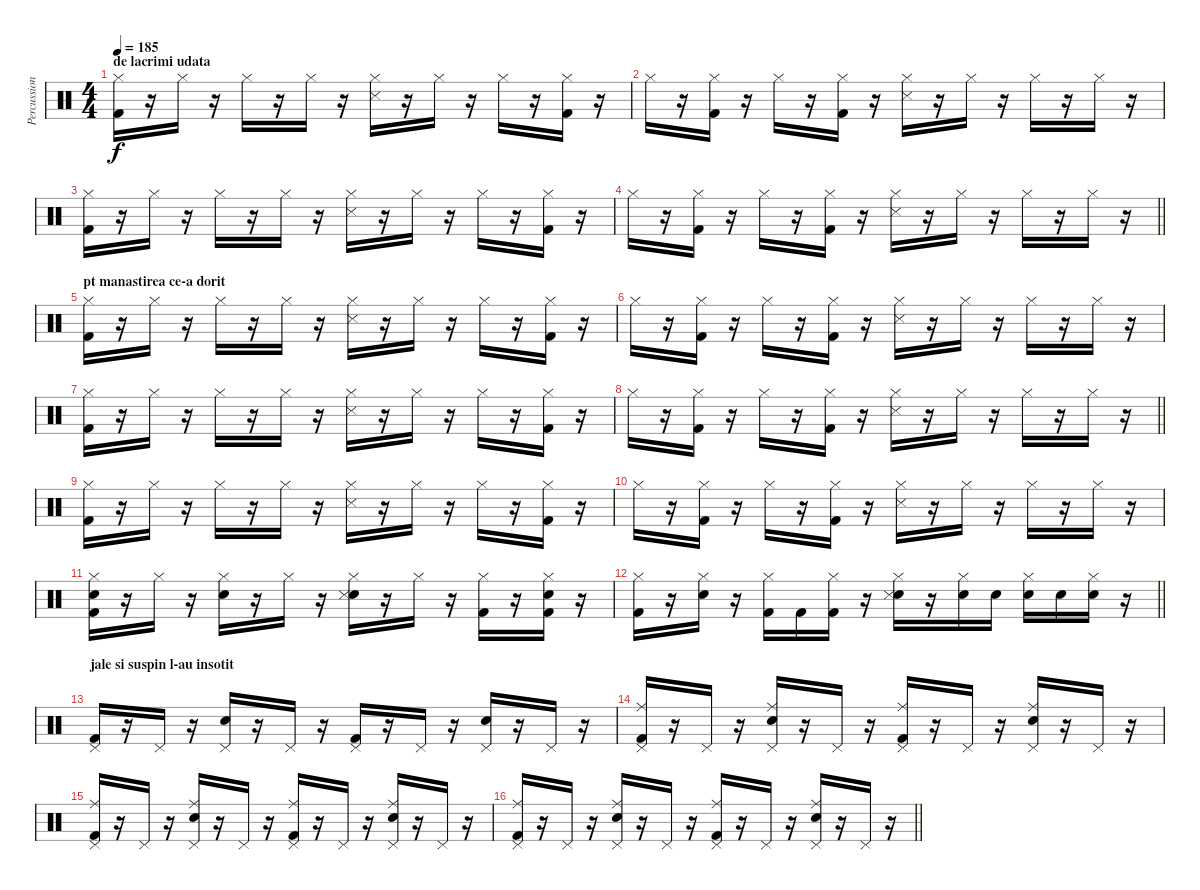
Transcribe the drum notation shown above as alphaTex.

\track ("Percussion" "Percussion") {instrument percussion}
\staff {score}
\articulation defaults
\ts (4 4)
\section ("" "de lacrimi udata")
\tempo 185
\clef neutral
\ks c
("Hi-Hat (closed)" "Kick (hit) 2").16{dy f} r.16 "Hi-Hat (closed)".16 r.16 "Hi-Hat (closed)".16 r.16 "Hi-Hat (closed)".16 r.16 ("Hi-Hat (closed)" "Metronome (hit)").16 r.16 "Hi-Hat (closed)".16 r.16 "Hi-Hat (closed)".16 r.16 ("Hi-Hat (closed)" "Kick (hit) 2").16 r.16 |
"Hi-Hat (closed)".16 r.16 ("Hi-Hat (closed)" "Kick (hit) 2").16 r.16 "Hi-Hat (closed)".16 r.16 ("Hi-Hat (closed)" "Kick (hit) 2").16 r.16 ("Hi-Hat (closed)" "Metronome (hit)").16 r.16 "Hi-Hat (closed)".16 r.16 "Hi-Hat (closed)".16 r.16 "Hi-Hat (closed)".16 r.16 |
("Hi-Hat (closed)" "Kick (hit) 2").16 r.16 "Hi-Hat (closed)".16 r.16 "Hi-Hat (closed)".16 r.16 "Hi-Hat (closed)".16 r.16 ("Hi-Hat (closed)" "Metronome (hit)").16 r.16 "Hi-Hat (closed)".16 r.16 "Hi-Hat (closed)".16 r.16 ("Hi-Hat (closed)" "Kick (hit) 2").16 r.16 |
\barLineRight lightlight "Hi-Hat (closed)".16
r.16 ("Hi-Hat (closed)" "Kick (hit) 2").16 r.16 "Hi-Hat (closed)".16 r.16 ("Hi-Hat (closed)" "Kick (hit) 2").16 r.16 ("Hi-Hat (closed)" "Metronome (hit)").16 r.16 "Hi-Hat (closed)".16 r.16 "Hi-Hat (closed)".16 r.16 "Hi-Hat (closed)".16 r.16 |
\section ("" "pt manastirea ce-a dorit")
("Hi-Hat (closed)" "Kick (hit) 2").16 r.16 "Hi-Hat (closed)".16 r.16 "Hi-Hat (closed)".16 r.16 "Hi-Hat (closed)".16 r.16 ("Hi-Hat (closed)" "Metronome (hit)").16 r.16 "Hi-Hat (closed)".16 r.16 "Hi-Hat (closed)".16 r.16 ("Hi-Hat (closed)" "Kick (hit) 2").16 r.16 |
"Hi-Hat (closed)".16 r.16 ("Hi-Hat (closed)" "Kick (hit) 2").16 r.16 "Hi-Hat (closed)".16 r.16 ("Hi-Hat (closed)" "Kick (hit) 2").16 r.16 ("Hi-Hat (closed)" "Metronome (hit)").16 r.16 "Hi-Hat (closed)".16 r.16 "Hi-Hat (closed)".16 r.16 "Hi-Hat (closed)".16 r.16 |
("Hi-Hat (closed)" "Kick (hit) 2").16 r.16 "Hi-Hat (closed)".16 r.16 "Hi-Hat (closed)".16 r.16 "Hi-Hat (closed)".16 r.16 ("Hi-Hat (closed)" "Metronome (hit)").16 r.16 "Hi-Hat (closed)".16 r.16 "Hi-Hat (closed)".16 r.16 ("Hi-Hat (closed)" "Kick (hit) 2").16 r.16 |
\barLineRight lightlight "Hi-Hat (closed)".16
r.16 ("Hi-Hat (closed)" "Kick (hit) 2").16 r.16 "Hi-Hat (closed)".16 r.16 ("Hi-Hat (closed)" "Kick (hit) 2").16 r.16 ("Hi-Hat (closed)" "Metronome (hit)").16 r.16 "Hi-Hat (closed)".16 r.16 "Hi-Hat (closed)".16 r.16 "Hi-Hat (closed)".16 r.16 |
("Hi-Hat (closed)" "Kick (hit) 2").16 r.16 "Hi-Hat (closed)".16 r.16 "Hi-Hat (closed)".16 r.16 "Hi-Hat (closed)".16 r.16 ("Hi-Hat (closed)" "Metronome (hit)").16 r.16 "Hi-Hat (closed)".16 r.16 "Hi-Hat (closed)".16 r.16 ("Hi-Hat (closed)" "Kick (hit) 2").16 r.16 |
"Hi-Hat (closed)".16 r.16 ("Hi-Hat (closed)" "Kick (hit) 2").16 r.16 "Hi-Hat (closed)".16 r.16 ("Hi-Hat (closed)" "Kick (hit) 2").16 r.16 ("Hi-Hat (closed)" "Metronome (hit)").16 r.16 "Hi-Hat (closed)".16 r.16 "Hi-Hat (closed)".16 r.16 "Hi-Hat (closed)".16 r.16 |
("Hi-Hat (closed)" "Snare (hit) 2" "Kick (hit) 2").16 r.16 "Hi-Hat (closed)".16 r.16 ("Hi-Hat (closed)" "Snare (hit) 2").16 r.16 "Hi-Hat (closed)".16 r.16 ("Hi-Hat (closed)" "Snare (hit) 2" "Metronome (hit)").16 r.16 "Hi-Hat (closed)".16 r.16 ("Hi-Hat (closed)" "Kick (hit) 2").16 r.16 ("Hi-Hat (closed)" "Snare (hit) 2" "Kick (hit) 2").16 r.16 |
\barLineRight lightlight
("Hi-Hat (closed)" "Kick (hit) 2").16 r.16 ("Hi-Hat (closed)" "Snare (hit) 2").16 r.16 ("Hi-Hat (closed)" "Kick (hit) 2").16 "Kick (hit) 2".16 ("Hi-Hat (closed)" "Kick (hit) 2").16 r.16 ("Hi-Hat (closed)" "Snare (hit) 2" "Metronome (hit)").16 r.16 ("Hi-Hat (closed)" "Snare (hit) 2").16 "Snare (hit) 2".16 ("Hi-Hat (closed)" "Snare (hit) 2").16 "Snare (hit) 2".16 ("Hi-Hat (closed)" "Snare (hit) 2").16 r.16 |
\section ("" "jale si suspin l-au insotit")
("Pedal Hi-Hat (hit)" "Kick (hit) 2").16 r.16 "Pedal Hi-Hat (hit)".16 r.16 ("Pedal Hi-Hat (hit)" "Snare (hit) 2").16 r.16 "Pedal Hi-Hat (hit)".16 r.16 ("Pedal Hi-Hat (hit)" "Kick (hit) 2").16 r.16 "Pedal Hi-Hat (hit)".16 r.16 ("Pedal Hi-Hat (hit)" "Snare (hit) 2").16 r.16 "Pedal Hi-Hat (hit)".16 r.16 |
("Ride (middle)" "Pedal Hi-Hat (hit)" "Kick (hit) 2").16 r.16 "Pedal Hi-Hat (hit)".16 r.16 ("Ride (middle)" "Pedal Hi-Hat (hit)" "Snare (hit) 2").16 r.16 "Pedal Hi-Hat (hit)".16 r.16 ("Ride (middle)" "Pedal Hi-Hat (hit)" "Kick (hit) 2").16 r.16 "Pedal Hi-Hat (hit)".16 r.16 ("Ride (middle)" "Pedal Hi-Hat (hit)" "Snare (hit) 2").16 r.16 "Pedal Hi-Hat (hit)".16 r.16 |
("Ride (middle)" "Pedal Hi-Hat (hit)" "Kick (hit) 2").16 r.16 "Pedal Hi-Hat (hit)".16 r.16 ("Ride (middle)" "Pedal Hi-Hat (hit)" "Snare (hit) 2").16 r.16 "Pedal Hi-Hat (hit)".16 r.16 ("Ride (middle)" "Pedal Hi-Hat (hit)" "Kick (hit) 2").16 r.16 "Pedal Hi-Hat (hit)".16 r.16 ("Ride (middle)" "Pedal Hi-Hat (hit)" "Snare (hit) 2").16 r.16 "Pedal Hi-Hat (hit)".16 r.16 |
\barLineRight lightlight
("Ride (middle)" "Pedal Hi-Hat (hit)" "Kick (hit) 2").16 r.16 "Pedal Hi-Hat (hit)".16 r.16 ("Ride (middle)" "Pedal Hi-Hat (hit)" "Snare (hit) 2").16 r.16 "Pedal Hi-Hat (hit)".16 r.16 ("Ride (middle)" "Pedal Hi-Hat (hit)" "Kick (hit) 2").16 r.16 "Pedal Hi-Hat (hit)".16 r.16 ("Ride (middle)" "Pedal Hi-Hat (hit)" "Snare (hit) 2").16 r.16 "Pedal Hi-Hat (hit)".16 r.16
